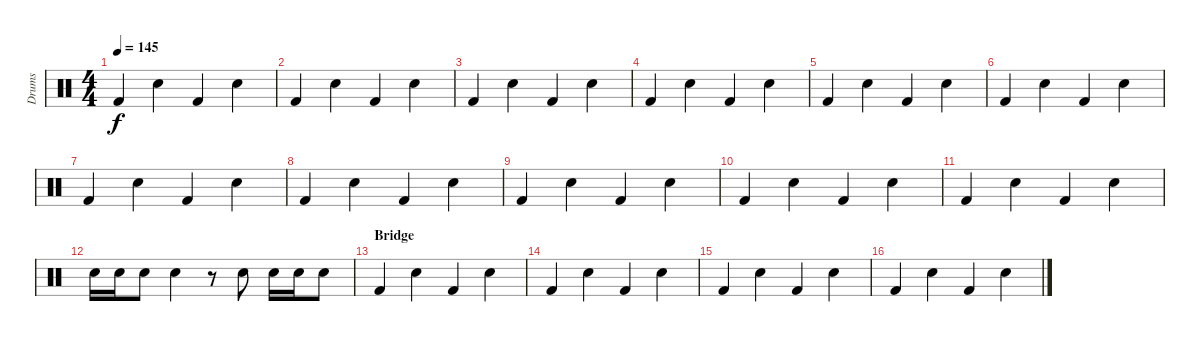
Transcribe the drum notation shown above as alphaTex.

\track ("Drums" "Drums") {instrument percussion}
\staff {score}
\articulation defaults
\ts (4 4)
\tempo 145
\clef neutral
\ks c "Kick (hit) 2".4{dy f} "Snare (hit) 2".4 "Kick (hit) 2".4 "Snare (hit) 2".4
|
"Kick (hit) 2".4 "Snare (hit) 2".4 "Kick (hit) 2".4 "Snare (hit) 2".4 |
"Kick (hit) 2".4 "Snare (hit) 2".4 "Kick (hit) 2".4 "Snare (hit) 2".4 |
"Kick (hit) 2".4 "Snare (hit) 2".4 "Kick (hit) 2".4 "Snare (hit) 2".4 |
"Kick (hit) 2".4 "Snare (hit) 2".4 "Kick (hit) 2".4 "Snare (hit) 2".4 |
"Kick (hit) 2".4 "Snare (hit) 2".4 "Kick (hit) 2".4 "Snare (hit) 2".4 |
"Kick (hit) 2".4 "Snare (hit) 2".4 "Kick (hit) 2".4 "Snare (hit) 2".4 |
"Kick (hit) 2".4 "Snare (hit) 2".4 "Kick (hit) 2".4 "Snare (hit) 2".4 |
"Kick (hit) 2".4 "Snare (hit) 2".4 "Kick (hit) 2".4 "Snare (hit) 2".4 |
"Kick (hit) 2".4 "Snare (hit) 2".4 "Kick (hit) 2".4 "Snare (hit) 2".4 |
"Kick (hit) 2".4 "Snare (hit) 2".4 "Kick (hit) 2".4 "Snare (hit) 2".4 |
"Snare (hit) 2".16 "Snare (hit) 2".16 "Snare (hit) 2".8 "Snare (hit) 2".4 r.8 "Snare (hit) 2".8 "Snare (hit) 2".16 "Snare (hit) 2".16 "Snare (hit) 2".8 |
\section ("" "Bridge")
"Kick (hit) 2".4 "Snare (hit) 2".4 "Kick (hit) 2".4 "Snare (hit) 2".4 |
"Kick (hit) 2".4 "Snare (hit) 2".4 "Kick (hit) 2".4 "Snare (hit) 2".4 |
"Kick (hit) 2".4 "Snare (hit) 2".4 "Kick (hit) 2".4 "Snare (hit) 2".4 |
"Kick (hit) 2".4 "Snare (hit) 2".4 "Kick (hit) 2".4 "Snare (hit) 2".4
